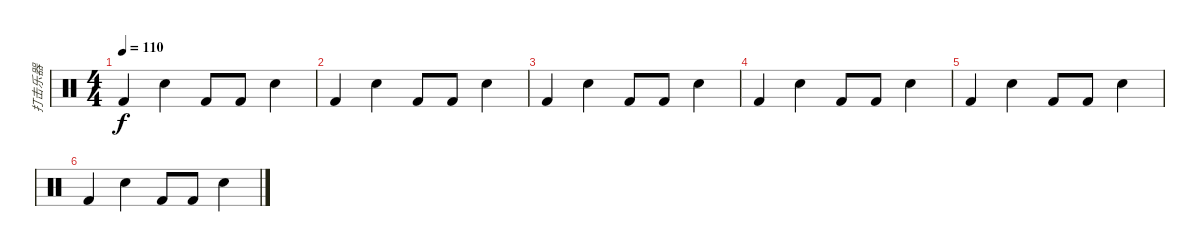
\track ("打击乐器" "打击乐器") {instrument percussion}
\staff {score}
\articulation defaults
\ts (4 4)
\tempo 110
\clef neutral
\ks c "Kick (hit) 2".4{dy f} "Electric Snare (hit)".4 "Kick (hit) 2".8 "Kick (hit) 2".8 "Electric Snare (hit)".4
|
"Kick (hit) 2".4 "Electric Snare (hit)".4 "Kick (hit) 2".8 "Kick (hit) 2".8 "Electric Snare (hit)".4 |
"Kick (hit) 2".4 "Electric Snare (hit)".4 "Kick (hit) 2".8 "Kick (hit) 2".8 "Electric Snare (hit)".4 |
"Kick (hit) 2".4 "Electric Snare (hit)".4 "Kick (hit) 2".8 "Kick (hit) 2".8 "Electric Snare (hit)".4 |
"Kick (hit) 2".4 "Electric Snare (hit)".4 "Kick (hit) 2".8 "Kick (hit) 2".8 "Electric Snare (hit)".4 |
"Kick (hit) 2".4 "Electric Snare (hit)".4 "Kick (hit) 2".8 "Kick (hit) 2".8 "Electric Snare (hit)".4
